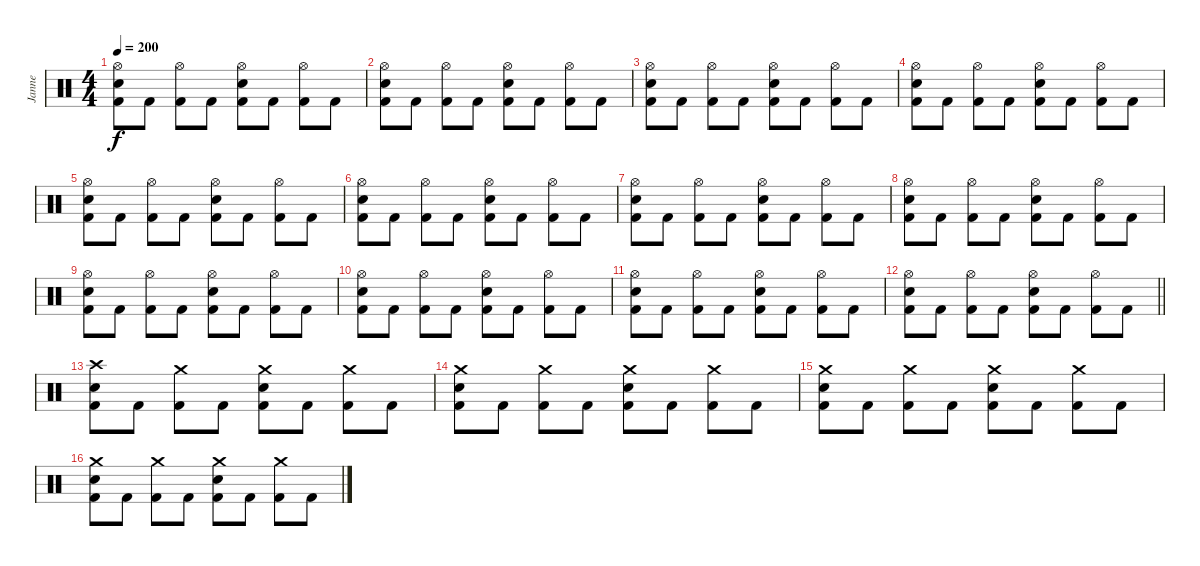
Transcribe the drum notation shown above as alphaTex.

\track ("Janne" "Janne") {instrument percussion}
\staff {score}
\articulation defaults
\ts (4 4)
\tempo 200
\clef neutral
\ks c
("Hi-Hat (open)" "Electric Snare (hit)" "Kick (hit) 2").8{dy f} "Kick (hit) 2".8 ("Hi-Hat (open)" "Kick (hit) 2").8 "Kick (hit) 2".8 ("Hi-Hat (open)" "Electric Snare (hit)" "Kick (hit) 2").8 "Kick (hit) 2".8 ("Hi-Hat (open)" "Kick (hit) 2").8 "Kick (hit) 2".8 |
("Hi-Hat (open)" "Electric Snare (hit)" "Kick (hit) 2").8 "Kick (hit) 2".8 ("Hi-Hat (open)" "Kick (hit) 2").8 "Kick (hit) 2".8 ("Hi-Hat (open)" "Electric Snare (hit)" "Kick (hit) 2").8 "Kick (hit) 2".8 ("Hi-Hat (open)" "Kick (hit) 2").8 "Kick (hit) 2".8 |
("Hi-Hat (open)" "Electric Snare (hit)" "Kick (hit) 2").8 "Kick (hit) 2".8 ("Hi-Hat (open)" "Kick (hit) 2").8 "Kick (hit) 2".8 ("Hi-Hat (open)" "Electric Snare (hit)" "Kick (hit) 2").8 "Kick (hit) 2".8 ("Hi-Hat (open)" "Kick (hit) 2").8 "Kick (hit) 2".8 |
("Hi-Hat (open)" "Electric Snare (hit)" "Kick (hit) 2").8 "Kick (hit) 2".8 ("Hi-Hat (open)" "Kick (hit) 2").8 "Kick (hit) 2".8 ("Hi-Hat (open)" "Electric Snare (hit)" "Kick (hit) 2").8 "Kick (hit) 2".8 ("Hi-Hat (open)" "Kick (hit) 2").8 "Kick (hit) 2".8 |
("Hi-Hat (open)" "Electric Snare (hit)" "Kick (hit) 2").8 "Kick (hit) 2".8 ("Hi-Hat (open)" "Kick (hit) 2").8 "Kick (hit) 2".8 ("Hi-Hat (open)" "Electric Snare (hit)" "Kick (hit) 2").8 "Kick (hit) 2".8 ("Hi-Hat (open)" "Kick (hit) 2").8 "Kick (hit) 2".8 |
("Hi-Hat (open)" "Electric Snare (hit)" "Kick (hit) 2").8 "Kick (hit) 2".8 ("Hi-Hat (open)" "Kick (hit) 2").8 "Kick (hit) 2".8 ("Hi-Hat (open)" "Electric Snare (hit)" "Kick (hit) 2").8 "Kick (hit) 2".8 ("Hi-Hat (open)" "Kick (hit) 2").8 "Kick (hit) 2".8 |
("Hi-Hat (open)" "Electric Snare (hit)" "Kick (hit) 2").8 "Kick (hit) 2".8 ("Hi-Hat (open)" "Kick (hit) 2").8 "Kick (hit) 2".8 ("Hi-Hat (open)" "Electric Snare (hit)" "Kick (hit) 2").8 "Kick (hit) 2".8 ("Hi-Hat (open)" "Kick (hit) 2").8 "Kick (hit) 2".8 |
("Hi-Hat (open)" "Electric Snare (hit)" "Kick (hit) 2").8 "Kick (hit) 2".8 ("Hi-Hat (open)" "Kick (hit) 2").8 "Kick (hit) 2".8 ("Hi-Hat (open)" "Electric Snare (hit)" "Kick (hit) 2").8 "Kick (hit) 2".8 ("Hi-Hat (open)" "Kick (hit) 2").8 "Kick (hit) 2".8 |
("Hi-Hat (open)" "Electric Snare (hit)" "Kick (hit) 2").8 "Kick (hit) 2".8 ("Hi-Hat (open)" "Kick (hit) 2").8 "Kick (hit) 2".8 ("Hi-Hat (open)" "Electric Snare (hit)" "Kick (hit) 2").8 "Kick (hit) 2".8 ("Hi-Hat (open)" "Kick (hit) 2").8 "Kick (hit) 2".8 |
("Hi-Hat (open)" "Electric Snare (hit)" "Kick (hit) 2").8 "Kick (hit) 2".8 ("Hi-Hat (open)" "Kick (hit) 2").8 "Kick (hit) 2".8 ("Hi-Hat (open)" "Electric Snare (hit)" "Kick (hit) 2").8 "Kick (hit) 2".8 ("Hi-Hat (open)" "Kick (hit) 2").8 "Kick (hit) 2".8 |
("Hi-Hat (open)" "Electric Snare (hit)" "Kick (hit) 2").8 "Kick (hit) 2".8 ("Hi-Hat (open)" "Kick (hit) 2").8 "Kick (hit) 2".8 ("Hi-Hat (open)" "Electric Snare (hit)" "Kick (hit) 2").8 "Kick (hit) 2".8 ("Hi-Hat (open)" "Kick (hit) 2").8 "Kick (hit) 2".8 |
\barLineRight lightlight
("Hi-Hat (open)" "Electric Snare (hit)" "Kick (hit) 2").8 "Kick (hit) 2".8 ("Hi-Hat (open)" "Kick (hit) 2").8 "Kick (hit) 2".8 ("Hi-Hat (open)" "Electric Snare (hit)" "Kick (hit) 2").8 "Kick (hit) 2".8 ("Hi-Hat (open)" "Kick (hit) 2").8 "Kick (hit) 2".8 |
\section ("" "")
("Crash high (hit)" "Electric Snare (hit)" "Kick (hit) 2").8 "Kick (hit) 2".8 ("Crash medium (hit)" "Kick (hit) 2").8 "Kick (hit) 2".8 ("Crash medium (hit)" "Electric Snare (hit)" "Kick (hit) 2").8 "Kick (hit) 2".8 ("Crash medium (hit)" "Kick (hit) 2").8 "Kick (hit) 2".8 |
("Crash medium (hit)" "Electric Snare (hit)" "Kick (hit) 2").8 "Kick (hit) 2".8 ("Crash medium (hit)" "Kick (hit) 2").8 "Kick (hit) 2".8 ("Crash medium (hit)" "Electric Snare (hit)" "Kick (hit) 2").8 "Kick (hit) 2".8 ("Crash medium (hit)" "Kick (hit) 2").8 "Kick (hit) 2".8 |
("Crash medium (hit)" "Electric Snare (hit)" "Kick (hit) 2").8 "Kick (hit) 2".8 ("Crash medium (hit)" "Kick (hit) 2").8 "Kick (hit) 2".8 ("Crash medium (hit)" "Electric Snare (hit)" "Kick (hit) 2").8 "Kick (hit) 2".8 ("Crash medium (hit)" "Kick (hit) 2").8 "Kick (hit) 2".8 |
("Crash medium (hit)" "Electric Snare (hit)" "Kick (hit) 2").8 "Kick (hit) 2".8 ("Crash medium (hit)" "Kick (hit) 2").8 "Kick (hit) 2".8 ("Crash medium (hit)" "Electric Snare (hit)" "Kick (hit) 2").8 "Kick (hit) 2".8 ("Crash medium (hit)" "Kick (hit) 2").8 "Kick (hit) 2".8
